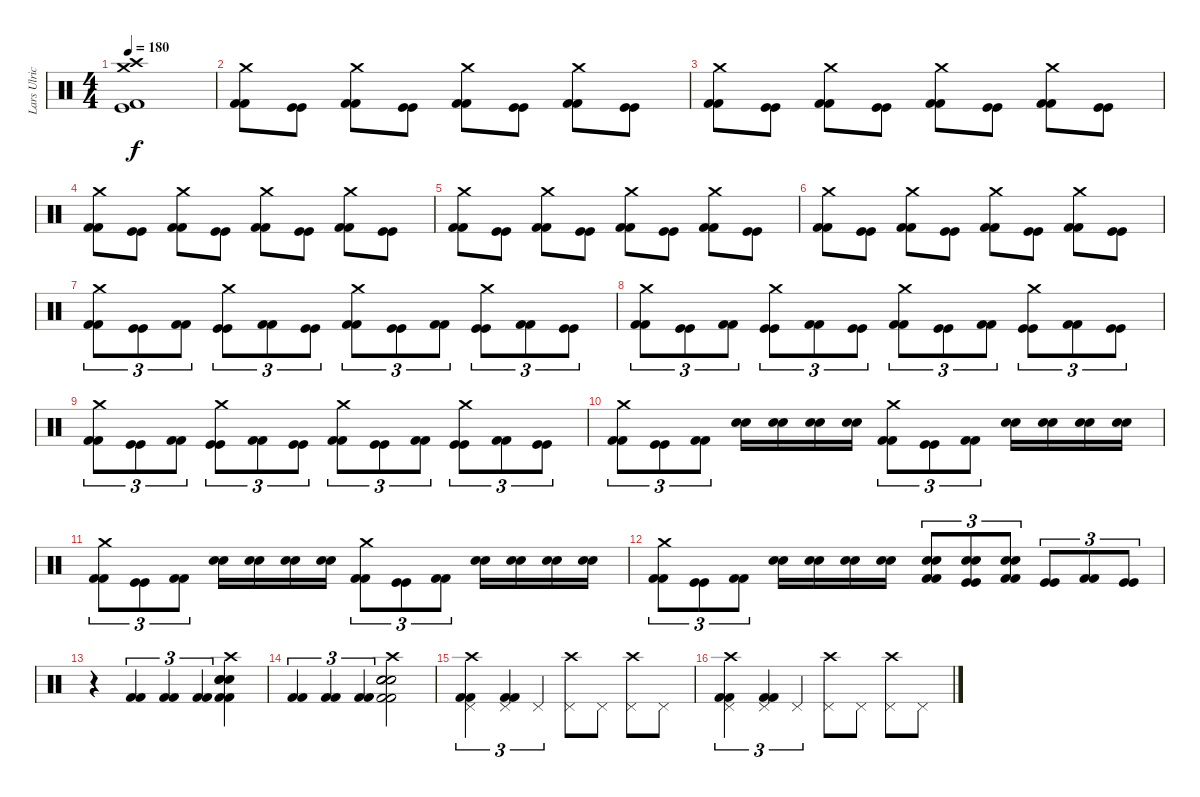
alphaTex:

\track ("Lars Ulrich" "Lars Ulric") {instrument percussion}
\staff {score}
\articulation defaults
\ts (4 4)
\tempo 180
\clef neutral
\ks c
("Crash high (hit)" "Crash medium (hit)" "Kick (hit)" "Kick (hit) 2").1{dy f} |
("Crash medium (hit)" "Kick (hit) 2" "Kick (hit) 2").8 ("Kick (hit)" "Kick (hit)").8 ("Crash medium (hit)" "Kick (hit) 2" "Kick (hit) 2").8 ("Kick (hit)" "Kick (hit)").8 ("Crash medium (hit)" "Kick (hit) 2" "Kick (hit) 2").8 ("Kick (hit)" "Kick (hit)").8 ("Crash medium (hit)" "Kick (hit) 2" "Kick (hit) 2").8 ("Kick (hit)" "Kick (hit)").8 |
("Crash medium (hit)" "Kick (hit) 2" "Kick (hit) 2").8 ("Kick (hit)" "Kick (hit)").8 ("Crash medium (hit)" "Kick (hit) 2" "Kick (hit) 2").8 ("Kick (hit)" "Kick (hit)").8 ("Crash medium (hit)" "Kick (hit) 2" "Kick (hit) 2").8 ("Kick (hit)" "Kick (hit)").8 ("Crash medium (hit)" "Kick (hit) 2" "Kick (hit) 2").8 ("Kick (hit)" "Kick (hit)").8 |
("Crash medium (hit)" "Kick (hit) 2" "Kick (hit) 2").8 ("Kick (hit)" "Kick (hit)").8 ("Crash medium (hit)" "Kick (hit) 2" "Kick (hit) 2").8 ("Kick (hit)" "Kick (hit)").8 ("Crash medium (hit)" "Kick (hit) 2" "Kick (hit) 2").8 ("Kick (hit)" "Kick (hit)").8 ("Crash medium (hit)" "Kick (hit) 2" "Kick (hit) 2").8 ("Kick (hit)" "Kick (hit)").8 |
("Crash medium (hit)" "Kick (hit) 2" "Kick (hit) 2").8 ("Kick (hit)" "Kick (hit)").8 ("Crash medium (hit)" "Kick (hit) 2" "Kick (hit) 2").8 ("Kick (hit)" "Kick (hit)").8 ("Crash medium (hit)" "Kick (hit) 2" "Kick (hit) 2").8 ("Kick (hit)" "Kick (hit)").8 ("Crash medium (hit)" "Kick (hit) 2" "Kick (hit) 2").8 ("Kick (hit)" "Kick (hit)").8 |
("Crash medium (hit)" "Kick (hit) 2" "Kick (hit) 2").8 ("Kick (hit)" "Kick (hit)").8 ("Crash medium (hit)" "Kick (hit) 2" "Kick (hit) 2").8 ("Kick (hit)" "Kick (hit)").8 ("Crash medium (hit)" "Kick (hit) 2" "Kick (hit) 2").8 ("Kick (hit)" "Kick (hit)").8 ("Crash medium (hit)" "Kick (hit) 2" "Kick (hit) 2").8 ("Kick (hit)" "Kick (hit)").8 |
("Crash medium (hit)" "Kick (hit) 2" "Kick (hit) 2").8{tu (3 2)} ("Kick (hit)" "Kick (hit)").8{tu (3 2)} ("Kick (hit) 2" "Kick (hit) 2").8{tu (3 2)} ("Crash medium (hit)" "Kick (hit)" "Kick (hit)").8{tu (3 2)} ("Kick (hit) 2" "Kick (hit) 2").8{tu (3 2)} ("Kick (hit)" "Kick (hit)").8{tu (3 2)} ("Crash medium (hit)" "Kick (hit) 2" "Kick (hit) 2").8{tu (3 2)} ("Kick (hit)" "Kick (hit)").8{tu (3 2)} ("Kick (hit) 2" "Kick (hit) 2").8{tu (3 2)} ("Crash medium (hit)" "Kick (hit)" "Kick (hit)").8{tu (3 2)} ("Kick (hit) 2" "Kick (hit) 2").8{tu (3 2)} ("Kick (hit)" "Kick (hit)").8{tu (3 2)} |
("Crash medium (hit)" "Kick (hit) 2" "Kick (hit) 2").8{tu (3 2)} ("Kick (hit)" "Kick (hit)").8{tu (3 2)} ("Kick (hit) 2" "Kick (hit) 2").8{tu (3 2)} ("Crash medium (hit)" "Kick (hit)" "Kick (hit)").8{tu (3 2)} ("Kick (hit) 2" "Kick (hit) 2").8{tu (3 2)} ("Kick (hit)" "Kick (hit)").8{tu (3 2)} ("Crash medium (hit)" "Kick (hit) 2" "Kick (hit) 2").8{tu (3 2)} ("Kick (hit)" "Kick (hit)").8{tu (3 2)} ("Kick (hit) 2" "Kick (hit) 2").8{tu (3 2)} ("Crash medium (hit)" "Kick (hit)" "Kick (hit)").8{tu (3 2)} ("Kick (hit) 2" "Kick (hit) 2").8{tu (3 2)} ("Kick (hit)" "Kick (hit)").8{tu (3 2)} |
("Crash medium (hit)" "Kick (hit) 2" "Kick (hit) 2").8{tu (3 2)} ("Kick (hit)" "Kick (hit)").8{tu (3 2)} ("Kick (hit) 2" "Kick (hit) 2").8{tu (3 2)} ("Crash medium (hit)" "Kick (hit)" "Kick (hit)").8{tu (3 2)} ("Kick (hit) 2" "Kick (hit) 2").8{tu (3 2)} ("Kick (hit)" "Kick (hit)").8{tu (3 2)} ("Crash medium (hit)" "Kick (hit) 2" "Kick (hit) 2").8{tu (3 2)} ("Kick (hit)" "Kick (hit)").8{tu (3 2)} ("Kick (hit) 2" "Kick (hit) 2").8{tu (3 2)} ("Crash medium (hit)" "Kick (hit)" "Kick (hit)").8{tu (3 2)} ("Kick (hit) 2" "Kick (hit) 2").8{tu (3 2)} ("Kick (hit)" "Kick (hit)").8{tu (3 2)} |
("Crash medium (hit)" "Kick (hit) 2" "Kick (hit) 2").8{tu (3 2)} ("Kick (hit)" "Kick (hit)").8{tu (3 2)} ("Kick (hit) 2" "Kick (hit) 2").8{tu (3 2)} ("Electric Snare (hit)" "Electric Snare (hit)").16 ("Electric Snare (hit)" "Electric Snare (hit)").16 ("Electric Snare (hit)" "Electric Snare (hit)").16 ("Electric Snare (hit)" "Electric Snare (hit)").16 ("Crash medium (hit)" "Kick (hit) 2" "Kick (hit) 2").8{tu (3 2)} ("Kick (hit)" "Kick (hit)").8{tu (3 2)} ("Kick (hit) 2" "Kick (hit) 2").8{tu (3 2)} ("Electric Snare (hit)" "Electric Snare (hit)").16 ("Electric Snare (hit)" "Electric Snare (hit)").16 ("Electric Snare (hit)" "Electric Snare (hit)").16 ("Electric Snare (hit)" "Electric Snare (hit)").16 |
("Crash medium (hit)" "Kick (hit) 2" "Kick (hit) 2").8{tu (3 2)} ("Kick (hit)" "Kick (hit)").8{tu (3 2)} ("Kick (hit) 2" "Kick (hit) 2").8{tu (3 2)} ("Electric Snare (hit)" "Electric Snare (hit)").16 ("Electric Snare (hit)" "Electric Snare (hit)").16 ("Electric Snare (hit)" "Electric Snare (hit)").16 ("Electric Snare (hit)" "Electric Snare (hit)").16 ("Crash medium (hit)" "Kick (hit) 2" "Kick (hit) 2").8{tu (3 2)} ("Kick (hit)" "Kick (hit)").8{tu (3 2)} ("Kick (hit) 2" "Kick (hit) 2").8{tu (3 2)} ("Electric Snare (hit)" "Electric Snare (hit)").16 ("Electric Snare (hit)" "Electric Snare (hit)").16 ("Electric Snare (hit)" "Electric Snare (hit)").16 ("Electric Snare (hit)" "Electric Snare (hit)").16 |
("Crash medium (hit)" "Kick (hit) 2" "Kick (hit) 2").8{tu (3 2)} ("Kick (hit)" "Kick (hit)").8{tu (3 2)} ("Kick (hit) 2" "Kick (hit) 2").8{tu (3 2)} ("Electric Snare (hit)" "Electric Snare (hit)").16 ("Electric Snare (hit)" "Electric Snare (hit)").16 ("Electric Snare (hit)" "Electric Snare (hit)").16 ("Electric Snare (hit)" "Electric Snare (hit)").16 ("Electric Snare (hit)" "Electric Snare (hit)" "Kick (hit) 2" "Kick (hit) 2").8{tu (3 2)} ("Electric Snare (hit)" "Electric Snare (hit)" "Kick (hit)" "Kick (hit)").8{tu (3 2)} ("Electric Snare (hit)" "Electric Snare (hit)" "Kick (hit) 2" "Kick (hit) 2").8{tu (3 2)} ("Kick (hit)" "Kick (hit)").8{tu (3 2)} ("Kick (hit) 2" "Kick (hit) 2").8{tu (3 2)} ("Kick (hit)" "Kick (hit)").8{tu (3 2)} |
r.4 ("Kick (hit) 2" "Kick (hit) 2").4{tu (3 2)} ("Kick (hit) 2" "Kick (hit) 2").4{tu (3 2)} ("Kick (hit) 2" "Kick (hit) 2").4{tu (3 2)} ("Crash high (hit)" "Electric Snare (hit)" "Electric Snare (hit)" "Kick (hit) 2" "Kick (hit) 2" "Snare (hit) 2").4 |
("Kick (hit) 2" "Kick (hit) 2").4{tu (3 2)} ("Kick (hit) 2" "Kick (hit) 2").4{tu (3 2)} ("Kick (hit) 2" "Kick (hit) 2").4{tu (3 2)} ("Crash high (hit)" "Electric Snare (hit)" "Electric Snare (hit)" "Kick (hit) 2" "Kick (hit) 2" "Snare (hit) 2").2 |
("Pedal Hi-Hat (hit)" "Crash high (hit)" "Kick (hit) 2" "Kick (hit) 2").4{tu (3 2)} ("Pedal Hi-Hat (hit)" "Kick (hit) 2" "Kick (hit) 2").4{tu (3 2)} "Pedal Hi-Hat (hit)".4{tu (3 2)} ("Pedal Hi-Hat (hit)" "Crash high (hit)").8 "Pedal Hi-Hat (hit)".8 ("Pedal Hi-Hat (hit)" "Crash high (hit)").8 "Pedal Hi-Hat (hit)".8 |
("Pedal Hi-Hat (hit)" "Crash high (hit)" "Kick (hit) 2" "Kick (hit) 2").4{tu (3 2)} ("Pedal Hi-Hat (hit)" "Kick (hit) 2" "Kick (hit) 2").4{tu (3 2)} "Pedal Hi-Hat (hit)".4{tu (3 2)} ("Pedal Hi-Hat (hit)" "Crash high (hit)").8 "Pedal Hi-Hat (hit)".8 ("Pedal Hi-Hat (hit)" "Crash high (hit)").8 "Pedal Hi-Hat (hit)".8
